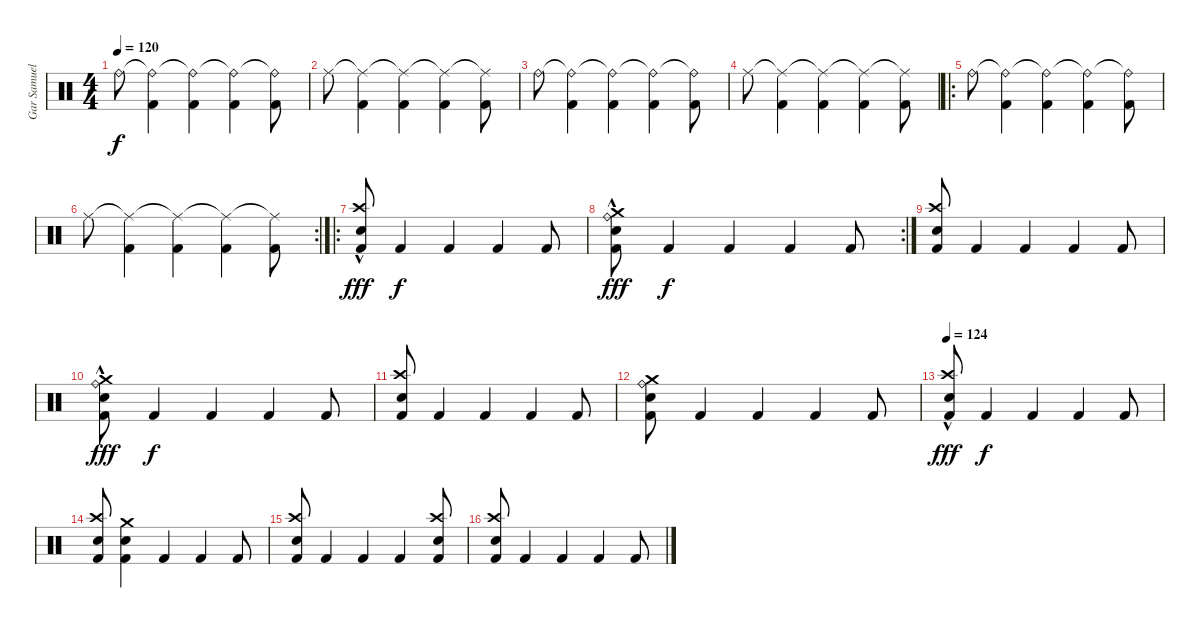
\track ("Gar Samuelson" "Gar Samuel") {instrument percussion}
\staff {score}
\articulation defaults
\ts (4 4)
\tempo 120
\clef neutral
\ks c "Ride (bell)".8{dy f}
("Ride (bell)"{t} "Kick (hit) 2").4 ("Ride (bell)"{t} "Kick (hit) 2").4 ("Ride (bell)"{t} "Kick (hit) 2").4 ("Ride (bell)"{t} "Kick (hit) 2").8 |
"Ride (middle)".8 ("Ride (middle)"{t} "Kick (hit) 2").4 ("Ride (middle)"{t} "Kick (hit) 2").4 ("Ride (middle)"{t} "Kick (hit) 2").4 ("Ride (middle)"{t} "Kick (hit) 2").8 |
"Ride (bell)".8 ("Ride (bell)"{t} "Kick (hit) 2").4 ("Ride (bell)"{t} "Kick (hit) 2").4 ("Ride (bell)"{t} "Kick (hit) 2").4 ("Ride (bell)"{t} "Kick (hit) 2").8 |
"Ride (middle)".8 ("Ride (middle)"{t} "Kick (hit) 2").4 ("Ride (middle)"{t} "Kick (hit) 2").4 ("Ride (middle)"{t} "Kick (hit) 2").4 ("Ride (middle)"{t} "Kick (hit) 2").8 |
\ro "Ride (bell)".8
("Ride (bell)"{t} "Kick (hit) 2").4 ("Ride (bell)"{t} "Kick (hit) 2").4 ("Ride (bell)"{t} "Kick (hit) 2").4 ("Ride (bell)"{t} "Kick (hit) 2").8 |
\rc 2 "Ride (middle)".8
("Ride (middle)"{t} "Kick (hit) 2").4 ("Ride (middle)"{t} "Kick (hit) 2").4 ("Ride (middle)"{t} "Kick (hit) 2").4 ("Ride (middle)"{t} "Kick (hit) 2").8 |
\ro
("Crash high (hit)"{hac} "Electric Snare (hit)"{hac} "Kick (hit) 2").8{dy fff} "Kick (hit) 2".4{dy f} "Kick (hit) 2".4 "Kick (hit) 2".4 "Kick (hit) 2".8 |
\rc 2
("Crash medium (hit)" "Ride (bell)"{hac} "Electric Snare (hit)" "Kick (hit) 2").8{dy fff} "Kick (hit) 2".4{dy f} "Kick (hit) 2".4 "Kick (hit) 2".4 "Kick (hit) 2".8 |
("Crash high (hit)" "Electric Snare (hit)" "Kick (hit) 2").8 "Kick (hit) 2".4 "Kick (hit) 2".4 "Kick (hit) 2".4 "Kick (hit) 2".8 |
("Crash medium (hit)" "Ride (bell)"{hac} "Electric Snare (hit)" "Kick (hit) 2").8{dy fff} "Kick (hit) 2".4{dy f} "Kick (hit) 2".4 "Kick (hit) 2".4 "Kick (hit) 2".8 |
("Crash high (hit)" "Electric Snare (hit)" "Kick (hit) 2").8 "Kick (hit) 2".4 "Kick (hit) 2".4 "Kick (hit) 2".4 "Kick (hit) 2".8 |
("Crash medium (hit)" "Ride (bell)" "Electric Snare (hit)" "Kick (hit) 2").8 "Kick (hit) 2".4 "Kick (hit) 2".4 "Kick (hit) 2".4 "Kick (hit) 2".8 |
\tempo 124
("Crash high (hit)"{hac} "Electric Snare (hit)"{hac} "Kick (hit) 2").8{dy fff} "Kick (hit) 2".4{dy f} "Kick (hit) 2".4 "Kick (hit) 2".4 "Kick (hit) 2".8 |
("Crash high (hit)" "Electric Snare (hit)" "Kick (hit) 2").8 ("Crash medium (hit)" "Electric Snare (hit)" "Kick (hit) 2").4 "Kick (hit) 2".4 "Kick (hit) 2".4 "Kick (hit) 2".8 |
("Crash high (hit)" "Electric Snare (hit)" "Kick (hit) 2").8 "Kick (hit) 2".4 "Kick (hit) 2".4 "Kick (hit) 2".4 ("Crash high (hit)" "Electric Snare (hit)" "Kick (hit) 2").8 |
("Crash high (hit)" "Electric Snare (hit)" "Kick (hit) 2").8 "Kick (hit) 2".4 "Kick (hit) 2".4 "Kick (hit) 2".4 "Kick (hit) 2".8
